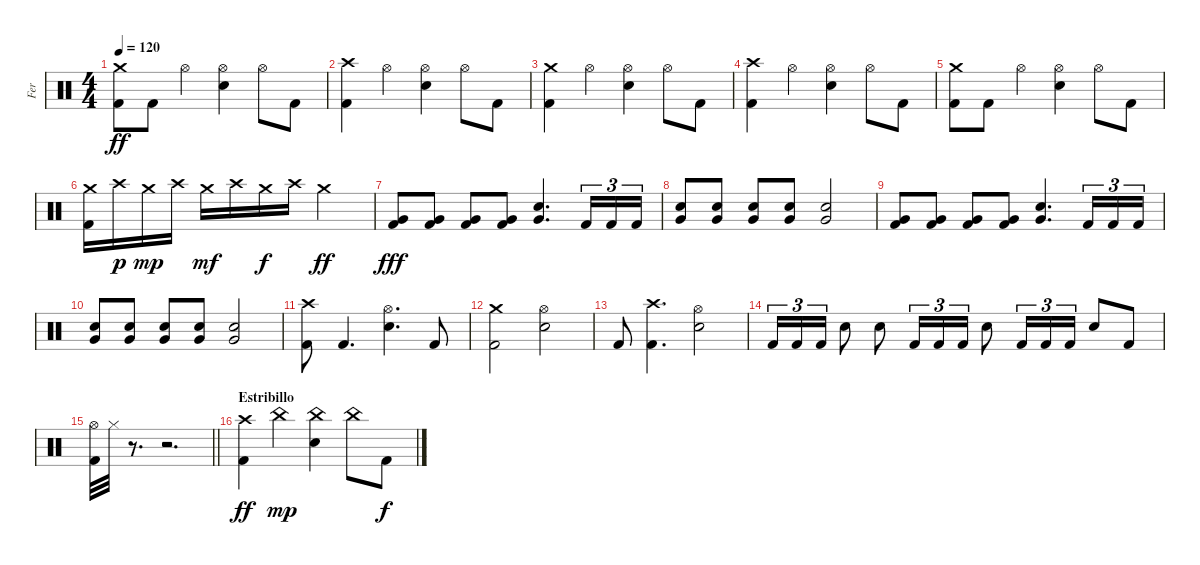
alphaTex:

\track ("Fer" "Fer") {instrument percussion}
\staff {score}
\articulation defaults
\ts (4 4)
\tempo 120
\clef neutral
\ks c
("Crash medium (hit)" "Kick (hit) 2").8{dy ff} "Kick (hit) 2".8 "Hi-Hat (open)".4 ("Hi-Hat (open)" "Snare (hit) 2").4 "Hi-Hat (open)".8 "Kick (hit) 2".8 |
("Crash high (hit)" "Kick (hit) 2").4 "Hi-Hat (open)".4 ("Hi-Hat (open)" "Snare (hit) 2").4 "Hi-Hat (open)".8 "Kick (hit) 2".8 |
("Crash medium (hit)" "Kick (hit) 2").4 "Hi-Hat (open)".4 ("Hi-Hat (open)" "Snare (hit) 2").4 "Hi-Hat (open)".8 "Kick (hit) 2".8 |
("Crash high (hit)" "Kick (hit) 2").4 "Hi-Hat (open)".4 ("Hi-Hat (open)" "Snare (hit) 2").4 "Hi-Hat (open)".8 "Kick (hit) 2".8 |
("Crash medium (hit)" "Kick (hit) 2").8 "Kick (hit) 2".8 "Hi-Hat (open)".4 ("Hi-Hat (open)" "Snare (hit) 2").4 "Hi-Hat (open)".8 "Kick (hit) 2".8 |
("Crash medium (hit)" "Kick (hit) 2").16 "Crash high (hit)".16{dy p} "Crash medium (hit)".16{dy mp} "Crash high (hit)".16 "Crash medium (hit)".16{dy mf} "Crash high (hit)".16 "Crash medium (hit)".16{dy f} "Crash high (hit)".16 "Crash medium (hit)".2{dy ff} |
("Very Low Tom (hit)" "Kick (hit) 2").8{dy fff} ("Very Low Tom (hit)" "Kick (hit) 2").8 ("Very Low Tom (hit)" "Kick (hit) 2").8 ("Very Low Tom (hit)" "Kick (hit) 2").8 ("Snare (hit) 2" "Very Low Tom (hit)").4{d} "Kick (hit) 2".16{tu (3 2)} "Kick (hit) 2".16{tu (3 2)} "Kick (hit) 2".16{tu (3 2)} |
("Snare (hit) 2" "Very Low Tom (hit)").8 ("Snare (hit) 2" "Very Low Tom (hit)").8 ("Snare (hit) 2" "Very Low Tom (hit)").8 ("Snare (hit) 2" "Very Low Tom (hit)").8 ("Snare (hit) 2" "Very Low Tom (hit)").2 |
("Very Low Tom (hit)" "Kick (hit) 2").8 ("Very Low Tom (hit)" "Kick (hit) 2").8 ("Very Low Tom (hit)" "Kick (hit) 2").8 ("Very Low Tom (hit)" "Kick (hit) 2").8 ("Snare (hit) 2" "Very Low Tom (hit)").4{d} "Kick (hit) 2".16{tu (3 2)} "Kick (hit) 2".16{tu (3 2)} "Kick (hit) 2".16{tu (3 2)} |
("Snare (hit) 2" "Very Low Tom (hit)").8 ("Snare (hit) 2" "Very Low Tom (hit)").8 ("Snare (hit) 2" "Very Low Tom (hit)").8 ("Snare (hit) 2" "Very Low Tom (hit)").8 ("Snare (hit) 2" "Very Low Tom (hit)").2 |
("Crash high (hit)" "Kick (hit) 2").8 "Kick (hit) 2".4{d} ("Hi-Hat (open)" "Snare (hit) 2").4{d} "Kick (hit) 2".8 |
("Crash medium (hit)" "Kick (hit) 2").2 ("Hi-Hat (open)" "Snare (hit) 2").2 |
"Kick (hit) 2".8 ("Crash high (hit)" "Kick (hit) 2").4{d} ("Hi-Hat (open)" "Snare (hit) 2").2 |
"Kick (hit) 2".16{tu (3 2)} "Kick (hit) 2".16{tu (3 2)} "Kick (hit) 2".16{tu (3 2)} "Snare (hit) 2".8 "Snare (hit) 2".8 "Kick (hit) 2".16{tu (3 2)} "Kick (hit) 2".16{tu (3 2)} "Kick (hit) 2".16{tu (3 2)} "Snare (hit) 2".8 "Kick (hit) 2".16{tu (3 2)} "Kick (hit) 2".16{tu (3 2)} "Kick (hit) 2".16{tu (3 2)} "Snare (hit) 2".8 "Kick (hit) 2".8 |
\barLineRight lightlight
("Hi-Hat (open)" "Kick (hit) 2").32 "Hi-Hat (closed)".32 r.8{d} r.2{d} |
\section ("" "Estribillo")
("Crash high (hit)" "Kick (hit) 2").4{dy ff} "China (hit)".4{dy mp} ("China (hit)" "Snare (hit) 2").4 "China (hit)".8 "Kick (hit) 2".8{dy f}
